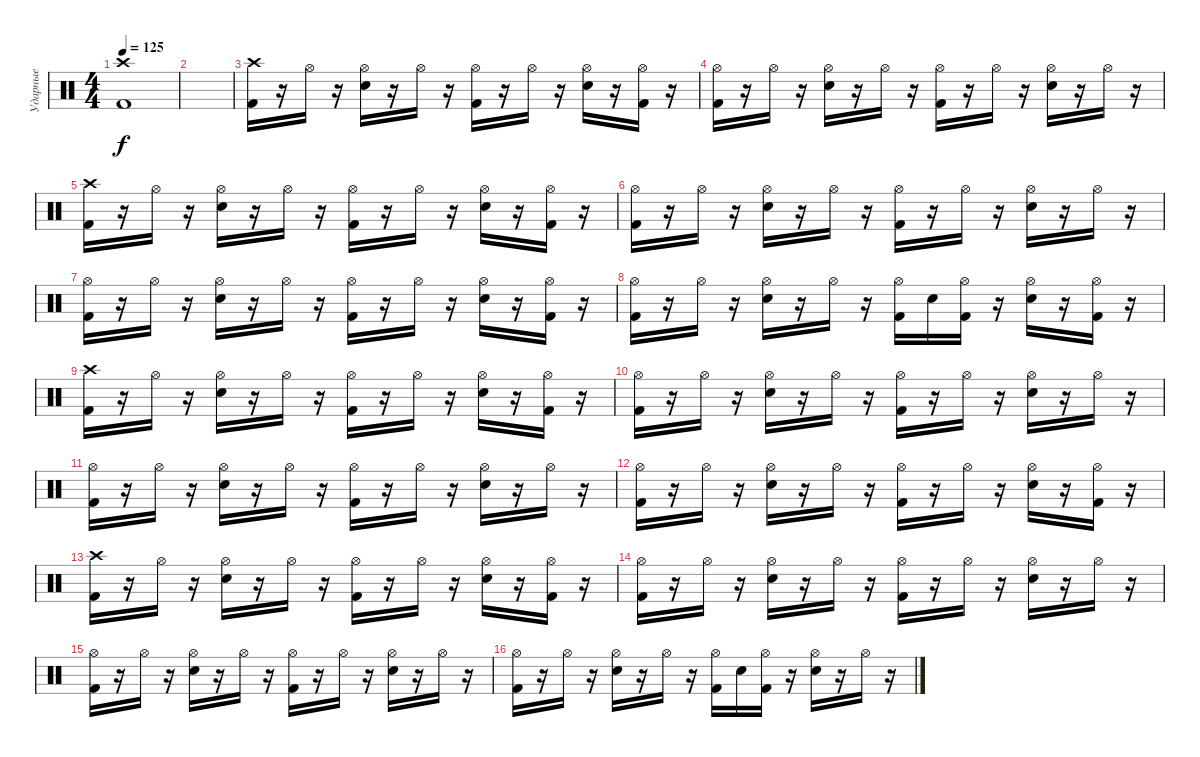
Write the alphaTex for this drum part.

\track ("Ударные" "Ударные") {instrument percussion}
\staff {score}
\articulation defaults
\ts (4 4)
\tempo 125
\clef neutral
\ks c
("Crash high (hit)" "Kick (hit) 2").1{dy f} |
|
("Crash high (hit)" "Kick (hit) 2").16 r.16 "Hi-Hat (open)".16 r.16 ("Hi-Hat (open)" "Electric Snare (hit)").16 r.16 "Hi-Hat (open)".16 r.16 ("Hi-Hat (open)" "Kick (hit) 2").16 r.16 "Hi-Hat (open)".16 r.16 ("Hi-Hat (open)" "Electric Snare (hit)").16 r.16 ("Hi-Hat (open)" "Kick (hit) 2").16 r.16 |
("Hi-Hat (open)" "Kick (hit) 2").16 r.16 "Hi-Hat (open)".16 r.16 ("Hi-Hat (open)" "Electric Snare (hit)").16 r.16 "Hi-Hat (open)".16 r.16 ("Hi-Hat (open)" "Kick (hit) 2").16 r.16 "Hi-Hat (open)".16 r.16 ("Hi-Hat (open)" "Electric Snare (hit)").16 r.16 "Hi-Hat (open)".16 r.16 |
("Crash high (hit)" "Kick (hit) 2").16 r.16 "Hi-Hat (open)".16 r.16 ("Hi-Hat (open)" "Electric Snare (hit)").16 r.16 "Hi-Hat (open)".16 r.16 ("Hi-Hat (open)" "Kick (hit) 2").16 r.16 "Hi-Hat (open)".16 r.16 ("Hi-Hat (open)" "Electric Snare (hit)").16 r.16 ("Hi-Hat (open)" "Kick (hit) 2").16 r.16 |
("Hi-Hat (open)" "Kick (hit) 2").16 r.16 "Hi-Hat (open)".16 r.16 ("Hi-Hat (open)" "Electric Snare (hit)").16 r.16 "Hi-Hat (open)".16 r.16 ("Hi-Hat (open)" "Kick (hit) 2").16 r.16 "Hi-Hat (open)".16 r.16 ("Hi-Hat (open)" "Electric Snare (hit)").16 r.16 "Hi-Hat (open)".16 r.16 |
("Hi-Hat (open)" "Kick (hit) 2").16 r.16 "Hi-Hat (open)".16 r.16 ("Hi-Hat (open)" "Electric Snare (hit)").16 r.16 "Hi-Hat (open)".16 r.16 ("Hi-Hat (open)" "Kick (hit) 2").16 r.16 "Hi-Hat (open)".16 r.16 ("Hi-Hat (open)" "Electric Snare (hit)").16 r.16 ("Hi-Hat (open)" "Kick (hit) 2").16 r.16 |
("Hi-Hat (open)" "Kick (hit) 2").16 r.16 "Hi-Hat (open)".16 r.16 ("Hi-Hat (open)" "Electric Snare (hit)").16 r.16 "Hi-Hat (open)".16 r.16 ("Hi-Hat (open)" "Kick (hit) 2").16 "Electric Snare (hit)".16 ("Hi-Hat (open)" "Kick (hit) 2").16 r.16 ("Hi-Hat (open)" "Electric Snare (hit)").16 r.16 ("Hi-Hat (open)" "Kick (hit) 2").16 r.16 |
("Crash high (hit)" "Kick (hit) 2").16 r.16 "Hi-Hat (open)".16 r.16 ("Hi-Hat (open)" "Electric Snare (hit)").16 r.16 "Hi-Hat (open)".16 r.16 ("Hi-Hat (open)" "Kick (hit) 2").16 r.16 "Hi-Hat (open)".16 r.16 ("Hi-Hat (open)" "Electric Snare (hit)").16 r.16 ("Hi-Hat (open)" "Kick (hit) 2").16 r.16 |
("Hi-Hat (open)" "Kick (hit) 2").16 r.16 "Hi-Hat (open)".16 r.16 ("Hi-Hat (open)" "Electric Snare (hit)").16 r.16 "Hi-Hat (open)".16 r.16 ("Hi-Hat (open)" "Kick (hit) 2").16 r.16 "Hi-Hat (open)".16 r.16 ("Hi-Hat (open)" "Electric Snare (hit)").16 r.16 "Hi-Hat (open)".16 r.16 |
("Hi-Hat (open)" "Kick (hit) 2").16 r.16 "Hi-Hat (open)".16 r.16 ("Hi-Hat (open)" "Electric Snare (hit)").16 r.16 "Hi-Hat (open)".16 r.16 ("Hi-Hat (open)" "Kick (hit) 2").16 r.16 "Hi-Hat (open)".16 r.16 ("Hi-Hat (open)" "Electric Snare (hit)").16 r.16 "Hi-Hat (open)".16 r.16 |
("Hi-Hat (open)" "Kick (hit) 2").16 r.16 "Hi-Hat (open)".16 r.16 ("Hi-Hat (open)" "Electric Snare (hit)").16 r.16 "Hi-Hat (open)".16 r.16 ("Hi-Hat (open)" "Kick (hit) 2").16 r.16 "Hi-Hat (open)".16 r.16 ("Hi-Hat (open)" "Electric Snare (hit)").16 r.16 ("Hi-Hat (open)" "Kick (hit) 2").16 r.16 |
("Crash high (hit)" "Kick (hit) 2").16 r.16 "Hi-Hat (open)".16 r.16 ("Hi-Hat (open)" "Electric Snare (hit)").16 r.16 "Hi-Hat (open)".16 r.16 ("Hi-Hat (open)" "Kick (hit) 2").16 r.16 "Hi-Hat (open)".16 r.16 ("Hi-Hat (open)" "Electric Snare (hit)").16 r.16 ("Hi-Hat (open)" "Kick (hit) 2").16 r.16 |
("Hi-Hat (open)" "Kick (hit) 2").16 r.16 "Hi-Hat (open)".16 r.16 ("Hi-Hat (open)" "Electric Snare (hit)").16 r.16 "Hi-Hat (open)".16 r.16 ("Hi-Hat (open)" "Kick (hit) 2").16 r.16 "Hi-Hat (open)".16 r.16 ("Hi-Hat (open)" "Electric Snare (hit)").16 r.16 "Hi-Hat (open)".16 r.16 |
("Hi-Hat (open)" "Kick (hit) 2").16 r.16 "Hi-Hat (open)".16 r.16 ("Hi-Hat (open)" "Electric Snare (hit)").16 r.16 "Hi-Hat (open)".16 r.16 ("Hi-Hat (open)" "Kick (hit) 2").16 r.16 "Hi-Hat (open)".16 r.16 ("Hi-Hat (open)" "Electric Snare (hit)").16 r.16 "Hi-Hat (open)".16 r.16 |
("Hi-Hat (open)" "Kick (hit) 2").16 r.16 "Hi-Hat (open)".16 r.16 ("Hi-Hat (open)" "Electric Snare (hit)").16 r.16 "Hi-Hat (open)".16 r.16 ("Hi-Hat (open)" "Kick (hit) 2").16 "Electric Snare (hit)".16 ("Hi-Hat (open)" "Kick (hit) 2").16 r.16 ("Hi-Hat (open)" "Electric Snare (hit)").16 r.16 "Hi-Hat (open)".16 r.16
